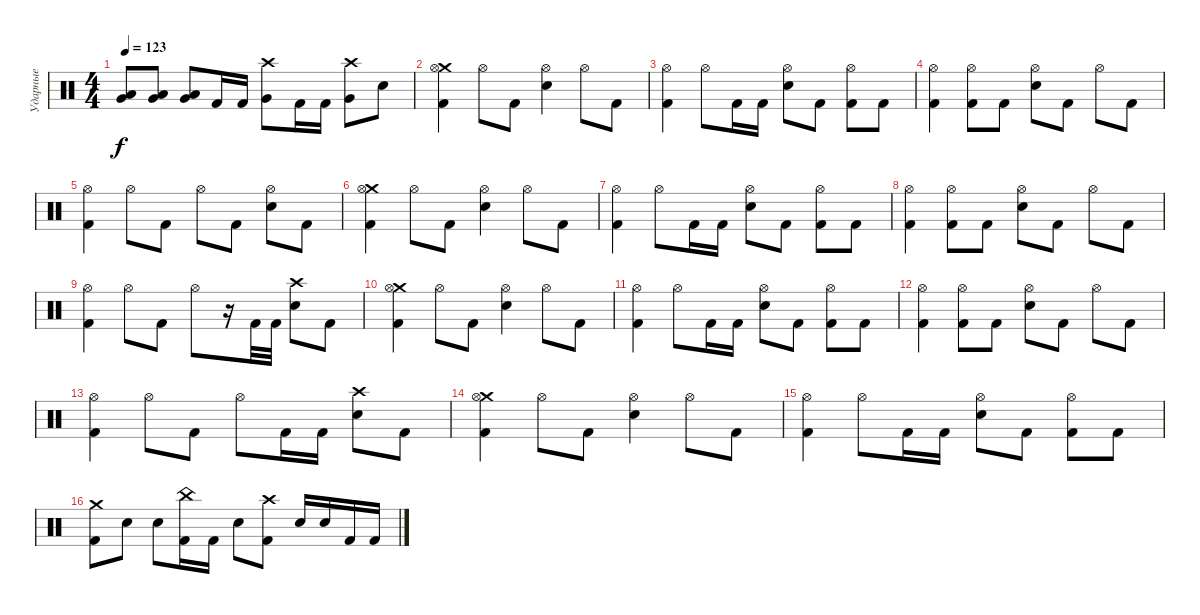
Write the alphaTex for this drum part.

\track ("Ударные" "Ударные") {instrument percussion}
\staff {score}
\articulation defaults
\ts (4 4)
\tempo 123
\clef neutral
\ks c
("Low Tom (hit)" "Very Low Tom (hit)").8{dy f} ("Low Tom (hit)" "Very Low Tom (hit)").8 ("Low Tom (hit)" "Very Low Tom (hit)").8 "Kick (hit) 2".16 "Kick (hit) 2".16 ("Crash high (hit)" "Very Low Tom (hit)").8 "Kick (hit) 2".16 "Kick (hit) 2".16 ("Crash high (hit)" "Very Low Tom (hit)").8 "Snare (hit) 2".8 |
("Crash medium (hit)" "Kick (hit) 2" "Hi-Hat (open)").4 "Hi-Hat (open)".8 "Kick (hit) 2".8 ("Snare (hit) 2" "Hi-Hat (open)").4 "Hi-Hat (open)".8 "Kick (hit) 2".8 |
("Kick (hit) 2" "Hi-Hat (open)").4 "Hi-Hat (open)".8 "Kick (hit) 2".16 "Kick (hit) 2".16 ("Snare (hit) 2" "Hi-Hat (open)").8 "Kick (hit) 2".8 ("Kick (hit) 2" "Hi-Hat (open)").8 "Kick (hit) 2".8 |
("Kick (hit) 2" "Hi-Hat (open)").4 ("Kick (hit) 2" "Hi-Hat (open)").8 "Kick (hit) 2".8 ("Snare (hit) 2" "Hi-Hat (open)").8 "Kick (hit) 2".8 "Hi-Hat (open)".8 "Kick (hit) 2".8 |
("Kick (hit) 2" "Hi-Hat (open)").4 "Hi-Hat (open)".8 "Kick (hit) 2".8 "Hi-Hat (open)".8 "Kick (hit) 2".8 ("Snare (hit) 2" "Hi-Hat (open)").8 "Kick (hit) 2".8 |
("Crash medium (hit)" "Kick (hit) 2" "Hi-Hat (open)").4 "Hi-Hat (open)".8 "Kick (hit) 2".8 ("Snare (hit) 2" "Hi-Hat (open)").4 "Hi-Hat (open)".8 "Kick (hit) 2".8 |
("Kick (hit) 2" "Hi-Hat (open)").4 "Hi-Hat (open)".8 "Kick (hit) 2".16 "Kick (hit) 2".16 ("Snare (hit) 2" "Hi-Hat (open)").8 "Kick (hit) 2".8 ("Kick (hit) 2" "Hi-Hat (open)").8 "Kick (hit) 2".8 |
("Kick (hit) 2" "Hi-Hat (open)").4 ("Kick (hit) 2" "Hi-Hat (open)").8 "Kick (hit) 2".8 ("Snare (hit) 2" "Hi-Hat (open)").8 "Kick (hit) 2".8 "Hi-Hat (open)".8 "Kick (hit) 2".8 |
("Kick (hit) 2" "Hi-Hat (open)").4 "Hi-Hat (open)".8 "Kick (hit) 2".8 "Hi-Hat (open)".8 r.16 "Kick (hit) 2".32 "Kick (hit) 2".32 ("Crash high (hit)" "Snare (hit) 2").8 "Kick (hit) 2".8 |
("Crash medium (hit)" "Kick (hit) 2" "Hi-Hat (open)").4 "Hi-Hat (open)".8 "Kick (hit) 2".8 ("Snare (hit) 2" "Hi-Hat (open)").4 "Hi-Hat (open)".8 "Kick (hit) 2".8 |
("Kick (hit) 2" "Hi-Hat (open)").4 "Hi-Hat (open)".8 "Kick (hit) 2".16 "Kick (hit) 2".16 ("Snare (hit) 2" "Hi-Hat (open)").8 "Kick (hit) 2".8 ("Kick (hit) 2" "Hi-Hat (open)").8 "Kick (hit) 2".8 |
("Kick (hit) 2" "Hi-Hat (open)").4 ("Kick (hit) 2" "Hi-Hat (open)").8 "Kick (hit) 2".8 ("Snare (hit) 2" "Hi-Hat (open)").8 "Kick (hit) 2".8 "Hi-Hat (open)".8 "Kick (hit) 2".8 |
("Kick (hit) 2" "Hi-Hat (open)").4 "Hi-Hat (open)".8 "Kick (hit) 2".8 "Hi-Hat (open)".8 "Kick (hit) 2".16 "Kick (hit) 2".16 ("Crash high (hit)" "Snare (hit) 2").8 "Kick (hit) 2".8 |
("Crash medium (hit)" "Kick (hit) 2" "Hi-Hat (open)").4 "Hi-Hat (open)".8 "Kick (hit) 2".8 ("Snare (hit) 2" "Hi-Hat (open)").4 "Hi-Hat (open)".8 "Kick (hit) 2".8 |
("Kick (hit) 2" "Hi-Hat (open)").4 "Hi-Hat (open)".8 "Kick (hit) 2".16 "Kick (hit) 2".16 ("Snare (hit) 2" "Hi-Hat (open)").8 "Kick (hit) 2".8 ("Kick (hit) 2" "Hi-Hat (open)").8 "Kick (hit) 2".8 |
("Crash medium (hit)" "Kick (hit) 2").8 "Snare (hit) 2".8 "Snare (hit) 2".8 ("China (hit)" "Kick (hit) 2").16 "Kick (hit) 2".16 "Snare (hit) 2".8 ("Crash high (hit)" "Kick (hit) 2").8 "Snare (hit) 2".16 "Snare (hit) 2".16 "Kick (hit) 2".16 "Kick (hit) 2".16
